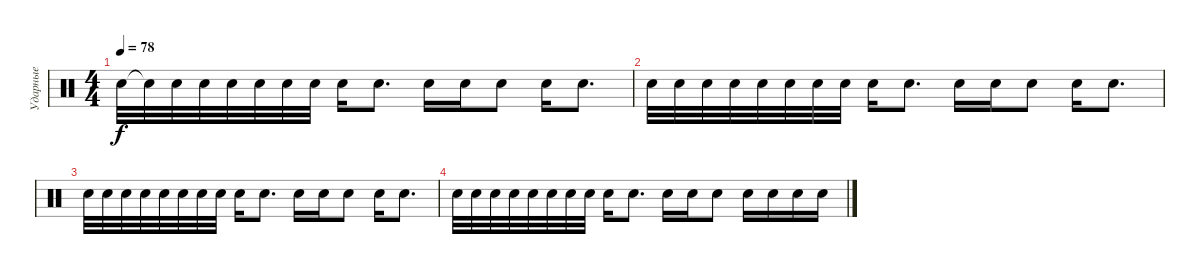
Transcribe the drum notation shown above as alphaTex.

\track ("Ударные" "Ударные") {instrument percussion}
\staff {score}
\articulation defaults
\ts (4 4)
\tempo 78
\clef neutral
\ks c "Snare (hit) 2"{t}.32{dy f} "Snare (hit) 2"{t}.32 "Snare (hit) 2".32 "Snare (hit) 2".32 "Snare (hit) 2".32 "Snare (hit) 2".32 "Snare (hit) 2".32 "Snare (hit) 2".32 "Snare (hit) 2".16 "Snare (hit) 2".8{d} "Snare (hit) 2".16 "Snare (hit) 2".16 "Snare (hit) 2".8 "Snare (hit) 2".16 "Snare (hit) 2".8{d}
|
"Snare (hit) 2".32 "Snare (hit) 2".32 "Snare (hit) 2".32 "Snare (hit) 2".32 "Snare (hit) 2".32 "Snare (hit) 2".32 "Snare (hit) 2".32 "Snare (hit) 2".32 "Snare (hit) 2".16 "Snare (hit) 2".8{d} "Snare (hit) 2".16 "Snare (hit) 2".16 "Snare (hit) 2".8 "Snare (hit) 2".16 "Snare (hit) 2".8{d} |
"Snare (hit) 2".32 "Snare (hit) 2".32 "Snare (hit) 2".32 "Snare (hit) 2".32 "Snare (hit) 2".32 "Snare (hit) 2".32 "Snare (hit) 2".32 "Snare (hit) 2".32 "Snare (hit) 2".16 "Snare (hit) 2".8{d} "Snare (hit) 2".16 "Snare (hit) 2".16 "Snare (hit) 2".8 "Snare (hit) 2".16 "Snare (hit) 2".8{d} |
"Snare (hit) 2".32 "Snare (hit) 2".32 "Snare (hit) 2".32 "Snare (hit) 2".32 "Snare (hit) 2".32 "Snare (hit) 2".32 "Snare (hit) 2".32 "Snare (hit) 2".32 "Snare (hit) 2".16 "Snare (hit) 2".8{d} "Snare (hit) 2".16 "Snare (hit) 2".16 "Snare (hit) 2".8 "Snare (hit) 2".16 "Snare (hit) 2".16 "Snare (hit) 2".16 "Snare (hit) 2".16
